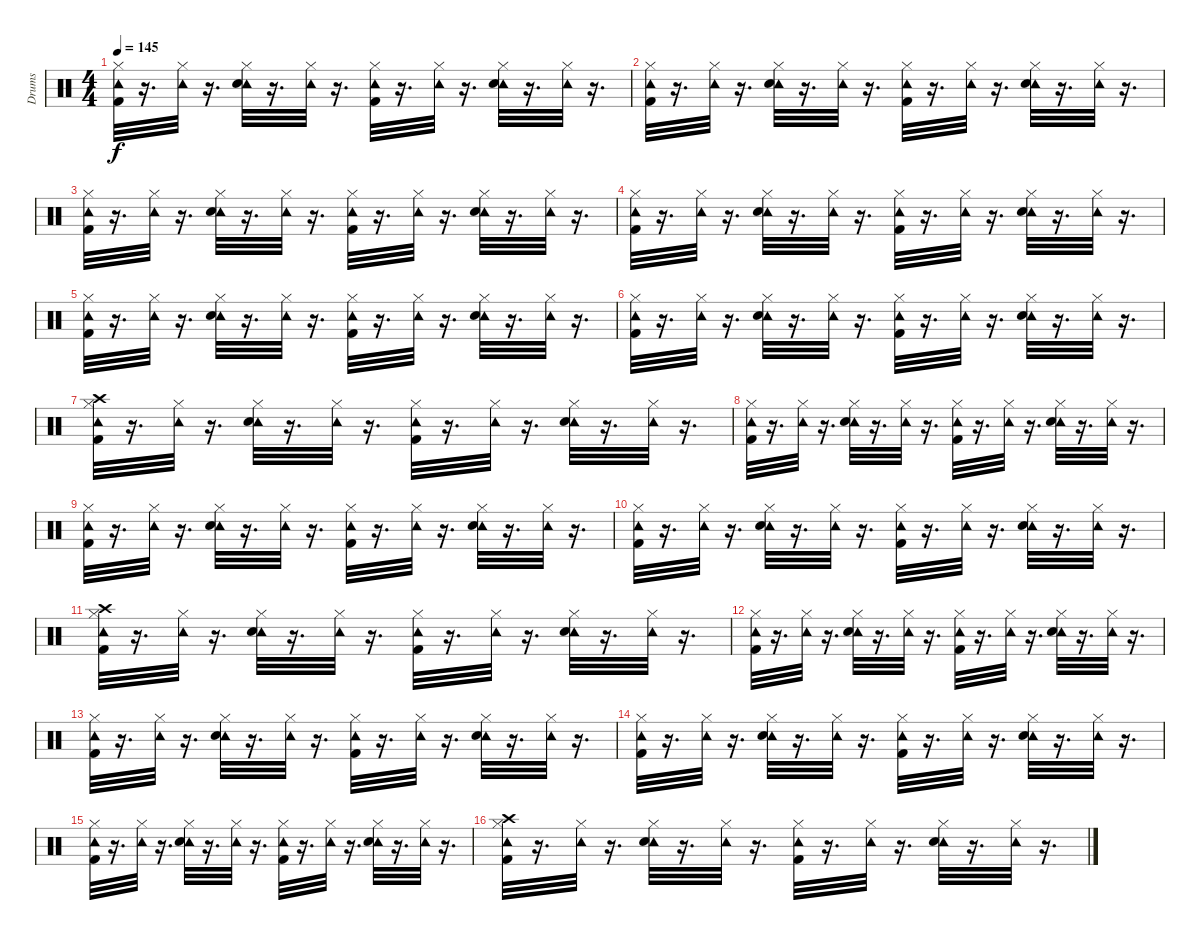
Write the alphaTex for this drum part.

\track ("Drums" "Drums") {instrument percussion}
\staff {score}
\articulation defaults
\ts (4 4)
\tempo 145
\clef neutral
\ks c
("Tambourine (hit)" "Kick (hit) 2" "Hi-Hat (closed)").32{dy f} r.16{d} ("Tambourine (hit)" "Hi-Hat (closed)").32 r.16{d} ("Tambourine (hit)" "Hi-Hat (closed)" "Snare (hit) 2").32 r.16{d} ("Tambourine (hit)" "Hi-Hat (closed)").32 r.16{d} ("Tambourine (hit)" "Kick (hit) 2" "Hi-Hat (closed)").32 r.16{d} ("Tambourine (hit)" "Hi-Hat (closed)").32 r.16{d} ("Tambourine (hit)" "Snare (hit) 2" "Hi-Hat (closed)").32 r.16{d} ("Tambourine (hit)" "Hi-Hat (closed)").32 r.16{d} |
("Tambourine (hit)" "Kick (hit) 2" "Hi-Hat (closed)").32 r.16{d} ("Tambourine (hit)" "Hi-Hat (closed)").32 r.16{d} ("Tambourine (hit)" "Hi-Hat (closed)" "Snare (hit) 2").32 r.16{d} ("Tambourine (hit)" "Hi-Hat (closed)").32 r.16{d} ("Tambourine (hit)" "Kick (hit) 2" "Hi-Hat (closed)").32 r.16{d} ("Tambourine (hit)" "Hi-Hat (closed)").32 r.16{d} ("Tambourine (hit)" "Snare (hit) 2" "Hi-Hat (closed)").32 r.16{d} ("Tambourine (hit)" "Hi-Hat (closed)").32 r.16{d} |
("Tambourine (hit)" "Kick (hit) 2" "Hi-Hat (closed)").32 r.16{d} ("Tambourine (hit)" "Hi-Hat (closed)").32 r.16{d} ("Tambourine (hit)" "Hi-Hat (closed)" "Snare (hit) 2").32 r.16{d} ("Tambourine (hit)" "Hi-Hat (closed)").32 r.16{d} ("Tambourine (hit)" "Kick (hit) 2" "Hi-Hat (closed)").32 r.16{d} ("Tambourine (hit)" "Hi-Hat (closed)").32 r.16{d} ("Tambourine (hit)" "Snare (hit) 2" "Hi-Hat (closed)").32 r.16{d} ("Tambourine (hit)" "Hi-Hat (closed)").32 r.16{d} |
("Tambourine (hit)" "Kick (hit) 2" "Hi-Hat (closed)").32 r.16{d} ("Tambourine (hit)" "Hi-Hat (closed)").32 r.16{d} ("Tambourine (hit)" "Hi-Hat (closed)" "Snare (hit) 2").32 r.16{d} ("Tambourine (hit)" "Hi-Hat (closed)").32 r.16{d} ("Tambourine (hit)" "Kick (hit) 2" "Hi-Hat (closed)").32 r.16{d} ("Tambourine (hit)" "Hi-Hat (closed)").32 r.16{d} ("Tambourine (hit)" "Snare (hit) 2" "Hi-Hat (closed)").32 r.16{d} ("Tambourine (hit)" "Hi-Hat (closed)").32 r.16{d} |
("Tambourine (hit)" "Kick (hit) 2" "Hi-Hat (closed)").32 r.16{d} ("Tambourine (hit)" "Hi-Hat (closed)").32 r.16{d} ("Tambourine (hit)" "Hi-Hat (closed)" "Snare (hit) 2").32 r.16{d} ("Tambourine (hit)" "Hi-Hat (closed)").32 r.16{d} ("Tambourine (hit)" "Kick (hit) 2" "Hi-Hat (closed)").32 r.16{d} ("Tambourine (hit)" "Hi-Hat (closed)").32 r.16{d} ("Tambourine (hit)" "Snare (hit) 2" "Hi-Hat (closed)").32 r.16{d} ("Tambourine (hit)" "Hi-Hat (closed)").32 r.16{d} |
("Tambourine (hit)" "Kick (hit) 2" "Hi-Hat (closed)").32 r.16{d} ("Tambourine (hit)" "Hi-Hat (closed)").32 r.16{d} ("Tambourine (hit)" "Hi-Hat (closed)" "Snare (hit) 2").32 r.16{d} ("Tambourine (hit)" "Hi-Hat (closed)").32 r.16{d} ("Tambourine (hit)" "Kick (hit) 2" "Hi-Hat (closed)").32 r.16{d} ("Tambourine (hit)" "Hi-Hat (closed)").32 r.16{d} ("Tambourine (hit)" "Snare (hit) 2" "Hi-Hat (closed)").32 r.16{d} ("Tambourine (hit)" "Hi-Hat (closed)").32 r.16{d} |
("Tambourine (hit)" "Kick (hit) 2" "Hi-Hat (closed)" "Crash high (hit)").32 r.16{d} ("Tambourine (hit)" "Hi-Hat (closed)").32 r.16{d} ("Tambourine (hit)" "Hi-Hat (closed)" "Snare (hit) 2").32 r.16{d} ("Tambourine (hit)" "Hi-Hat (closed)").32 r.16{d} ("Tambourine (hit)" "Kick (hit) 2" "Hi-Hat (closed)").32 r.16{d} ("Tambourine (hit)" "Hi-Hat (closed)").32 r.16{d} ("Tambourine (hit)" "Snare (hit) 2" "Hi-Hat (closed)").32 r.16{d} ("Tambourine (hit)" "Hi-Hat (closed)").32 r.16{d} |
("Tambourine (hit)" "Kick (hit) 2" "Hi-Hat (closed)").32 r.16{d} ("Tambourine (hit)" "Hi-Hat (closed)").32 r.16{d} ("Tambourine (hit)" "Hi-Hat (closed)" "Snare (hit) 2").32 r.16{d} ("Tambourine (hit)" "Hi-Hat (closed)").32 r.16{d} ("Tambourine (hit)" "Kick (hit) 2" "Hi-Hat (closed)").32 r.16{d} ("Tambourine (hit)" "Hi-Hat (closed)").32 r.16{d} ("Tambourine (hit)" "Snare (hit) 2" "Hi-Hat (closed)").32 r.16{d} ("Tambourine (hit)" "Hi-Hat (closed)").32 r.16{d} |
("Tambourine (hit)" "Kick (hit) 2" "Hi-Hat (closed)").32 r.16{d} ("Tambourine (hit)" "Hi-Hat (closed)").32 r.16{d} ("Tambourine (hit)" "Hi-Hat (closed)" "Snare (hit) 2").32 r.16{d} ("Tambourine (hit)" "Hi-Hat (closed)").32 r.16{d} ("Tambourine (hit)" "Kick (hit) 2" "Hi-Hat (closed)").32 r.16{d} ("Tambourine (hit)" "Hi-Hat (closed)").32 r.16{d} ("Tambourine (hit)" "Snare (hit) 2" "Hi-Hat (closed)").32 r.16{d} ("Tambourine (hit)" "Hi-Hat (closed)").32 r.16{d} |
("Tambourine (hit)" "Kick (hit) 2" "Hi-Hat (closed)").32 r.16{d} ("Tambourine (hit)" "Hi-Hat (closed)").32 r.16{d} ("Tambourine (hit)" "Hi-Hat (closed)" "Snare (hit) 2").32 r.16{d} ("Tambourine (hit)" "Hi-Hat (closed)").32 r.16{d} ("Tambourine (hit)" "Kick (hit) 2" "Hi-Hat (closed)").32 r.16{d} ("Tambourine (hit)" "Hi-Hat (closed)").32 r.16{d} ("Tambourine (hit)" "Snare (hit) 2" "Hi-Hat (closed)").32 r.16{d} ("Tambourine (hit)" "Hi-Hat (closed)").32 r.16{d} |
("Tambourine (hit)" "Kick (hit) 2" "Hi-Hat (closed)" "Crash high (hit)").32 r.16{d} ("Tambourine (hit)" "Hi-Hat (closed)").32 r.16{d} ("Tambourine (hit)" "Hi-Hat (closed)" "Snare (hit) 2").32 r.16{d} ("Tambourine (hit)" "Hi-Hat (closed)").32 r.16{d} ("Tambourine (hit)" "Kick (hit) 2" "Hi-Hat (closed)").32 r.16{d} ("Tambourine (hit)" "Hi-Hat (closed)").32 r.16{d} ("Tambourine (hit)" "Snare (hit) 2" "Hi-Hat (closed)").32 r.16{d} ("Tambourine (hit)" "Hi-Hat (closed)").32 r.16{d} |
("Tambourine (hit)" "Kick (hit) 2" "Hi-Hat (closed)").32 r.16{d} ("Tambourine (hit)" "Hi-Hat (closed)").32 r.16{d} ("Tambourine (hit)" "Hi-Hat (closed)" "Snare (hit) 2").32 r.16{d} ("Tambourine (hit)" "Hi-Hat (closed)").32 r.16{d} ("Tambourine (hit)" "Kick (hit) 2" "Hi-Hat (closed)").32 r.16{d} ("Tambourine (hit)" "Hi-Hat (closed)").32 r.16{d} ("Tambourine (hit)" "Snare (hit) 2" "Hi-Hat (closed)").32 r.16{d} ("Tambourine (hit)" "Hi-Hat (closed)").32 r.16{d} |
("Tambourine (hit)" "Kick (hit) 2" "Hi-Hat (closed)").32 r.16{d} ("Tambourine (hit)" "Hi-Hat (closed)").32 r.16{d} ("Tambourine (hit)" "Hi-Hat (closed)" "Snare (hit) 2").32 r.16{d} ("Tambourine (hit)" "Hi-Hat (closed)").32 r.16{d} ("Tambourine (hit)" "Kick (hit) 2" "Hi-Hat (closed)").32 r.16{d} ("Tambourine (hit)" "Hi-Hat (closed)").32 r.16{d} ("Tambourine (hit)" "Snare (hit) 2" "Hi-Hat (closed)").32 r.16{d} ("Tambourine (hit)" "Hi-Hat (closed)").32 r.16{d} |
("Tambourine (hit)" "Kick (hit) 2" "Hi-Hat (closed)").32 r.16{d} ("Tambourine (hit)" "Hi-Hat (closed)").32 r.16{d} ("Tambourine (hit)" "Hi-Hat (closed)" "Snare (hit) 2").32 r.16{d} ("Tambourine (hit)" "Hi-Hat (closed)").32 r.16{d} ("Tambourine (hit)" "Kick (hit) 2" "Hi-Hat (closed)").32 r.16{d} ("Tambourine (hit)" "Hi-Hat (closed)").32 r.16{d} ("Tambourine (hit)" "Snare (hit) 2" "Hi-Hat (closed)").32 r.16{d} ("Tambourine (hit)" "Hi-Hat (closed)").32 r.16{d} |
("Tambourine (hit)" "Kick (hit) 2" "Hi-Hat (closed)").32 r.16{d} ("Tambourine (hit)" "Hi-Hat (closed)").32 r.16{d} ("Tambourine (hit)" "Hi-Hat (closed)" "Snare (hit) 2").32 r.16{d} ("Tambourine (hit)" "Hi-Hat (closed)").32 r.16{d} ("Tambourine (hit)" "Kick (hit) 2" "Hi-Hat (closed)").32 r.16{d} ("Tambourine (hit)" "Hi-Hat (closed)").32 r.16{d} ("Tambourine (hit)" "Snare (hit) 2" "Hi-Hat (closed)").32 r.16{d} ("Tambourine (hit)" "Hi-Hat (closed)").32 r.16{d} |
("Tambourine (hit)" "Kick (hit) 2" "Hi-Hat (closed)" "Crash high (hit)").32 r.16{d} ("Tambourine (hit)" "Hi-Hat (closed)").32 r.16{d} ("Tambourine (hit)" "Hi-Hat (closed)" "Snare (hit) 2").32 r.16{d} ("Tambourine (hit)" "Hi-Hat (closed)").32 r.16{d} ("Tambourine (hit)" "Kick (hit) 2" "Hi-Hat (closed)").32 r.16{d} ("Tambourine (hit)" "Hi-Hat (closed)").32 r.16{d} ("Tambourine (hit)" "Snare (hit) 2" "Hi-Hat (closed)").32 r.16{d} ("Tambourine (hit)" "Hi-Hat (closed)").32 r.16{d}
